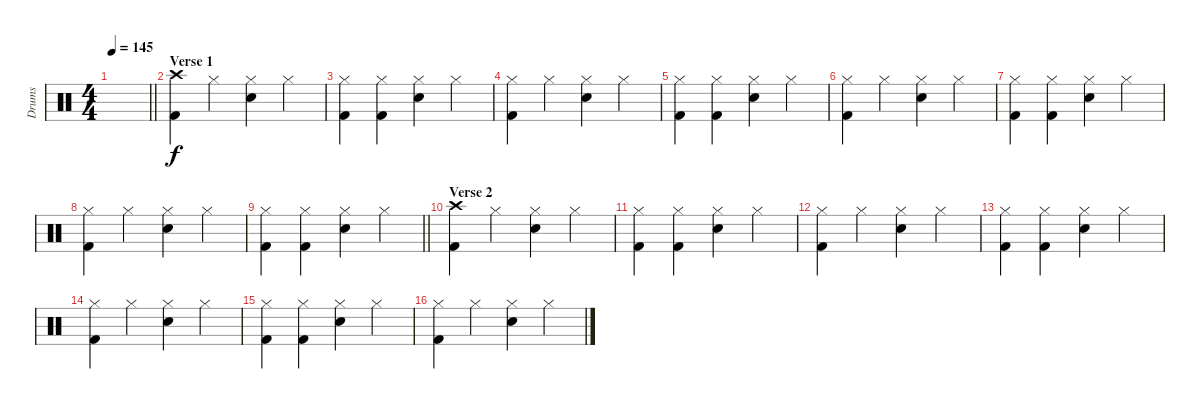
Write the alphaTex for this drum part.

\track ("Drums" "Drums") {instrument percussion}
\staff {score}
\articulation defaults
\ts (4 4)
\tempo 145
\clef neutral
\barLineRight lightlight
\ks c
|
\section ("" "Verse 1")
("Crash high (hit)" "Kick (hit) 2").4 "Hi-Hat (closed)".4 ("Hi-Hat (closed)" "Electric Snare (hit)").4 "Hi-Hat (closed)".4 |
("Hi-Hat (closed)" "Kick (hit) 2").4 ("Hi-Hat (closed)" "Kick (hit) 2").4 ("Hi-Hat (closed)" "Electric Snare (hit)").4 "Hi-Hat (closed)".4 |
("Hi-Hat (closed)" "Kick (hit) 2").4 "Hi-Hat (closed)".4 ("Hi-Hat (closed)" "Electric Snare (hit)").4 "Hi-Hat (closed)".4 |
("Hi-Hat (closed)" "Kick (hit) 2").4 ("Hi-Hat (closed)" "Kick (hit) 2").4 ("Hi-Hat (closed)" "Electric Snare (hit)").4 "Hi-Hat (closed)".4 |
("Hi-Hat (closed)" "Kick (hit) 2").4 "Hi-Hat (closed)".4 ("Hi-Hat (closed)" "Electric Snare (hit)").4 "Hi-Hat (closed)".4 |
("Hi-Hat (closed)" "Kick (hit) 2").4 ("Hi-Hat (closed)" "Kick (hit) 2").4 ("Hi-Hat (closed)" "Electric Snare (hit)").4 "Hi-Hat (closed)".4 |
("Hi-Hat (closed)" "Kick (hit) 2").4 "Hi-Hat (closed)".4 ("Hi-Hat (closed)" "Electric Snare (hit)").4 "Hi-Hat (closed)".4 |
\barLineRight lightlight
("Hi-Hat (closed)" "Kick (hit) 2").4 ("Hi-Hat (closed)" "Kick (hit) 2").4 ("Hi-Hat (closed)" "Electric Snare (hit)").4 "Hi-Hat (closed)".4 |
\section ("" "Verse 2")
("Crash high (hit)" "Kick (hit) 2").4 "Hi-Hat (closed)".4 ("Hi-Hat (closed)" "Electric Snare (hit)").4 "Hi-Hat (closed)".4 |
("Hi-Hat (closed)" "Kick (hit) 2").4 ("Hi-Hat (closed)" "Kick (hit) 2").4 ("Hi-Hat (closed)" "Electric Snare (hit)").4 "Hi-Hat (closed)".4 |
("Hi-Hat (closed)" "Kick (hit) 2").4 "Hi-Hat (closed)".4 ("Hi-Hat (closed)" "Electric Snare (hit)").4 "Hi-Hat (closed)".4 |
("Hi-Hat (closed)" "Kick (hit) 2").4 ("Hi-Hat (closed)" "Kick (hit) 2").4 ("Hi-Hat (closed)" "Electric Snare (hit)").4 "Hi-Hat (closed)".4 |
("Hi-Hat (closed)" "Kick (hit) 2").4 "Hi-Hat (closed)".4 ("Hi-Hat (closed)" "Electric Snare (hit)").4 "Hi-Hat (closed)".4 |
("Hi-Hat (closed)" "Kick (hit) 2").4 ("Hi-Hat (closed)" "Kick (hit) 2").4 ("Hi-Hat (closed)" "Electric Snare (hit)").4 "Hi-Hat (closed)".4 |
("Hi-Hat (closed)" "Kick (hit) 2").4 "Hi-Hat (closed)".4 ("Hi-Hat (closed)" "Electric Snare (hit)").4 "Hi-Hat (closed)".4
